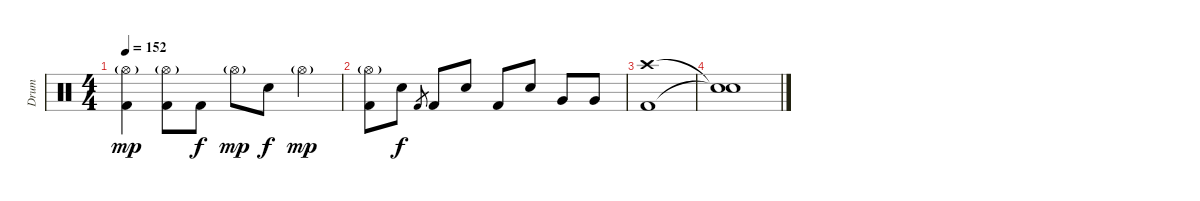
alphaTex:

\track ("Drum" "Drum") {instrument percussion}
\staff {score}
\articulation defaults
\ts (4 4)
\tempo 152
\clef neutral
\ks c
("Hi-Hat (open)"{g} "Kick (hit) 2").4{dy mp} ("Hi-Hat (open)"{g} "Kick (hit) 2").8 "Kick (hit) 2".8{dy f} "Hi-Hat (open)"{g}.8{dy mp} "Electric Snare (hit)".8{dy f} "Hi-Hat (open)"{g}.4{dy mp} |
("Hi-Hat (open)"{g} "Kick (hit) 2").8 "Electric Snare (hit)".8{dy f} "Kick (hit) 2".8{gr} "Kick (hit) 2".8 "Electric Snare (hit)".8 "Kick (hit) 2".8 "Electric Snare (hit)".8 "Very Low Tom (hit)".8 "Very Low Tom (hit)".8 |
("Crash high (hit)" "Kick (hit) 2").1 |
("Snare (hit)"{t} "Snare (hit)"{t}).1
